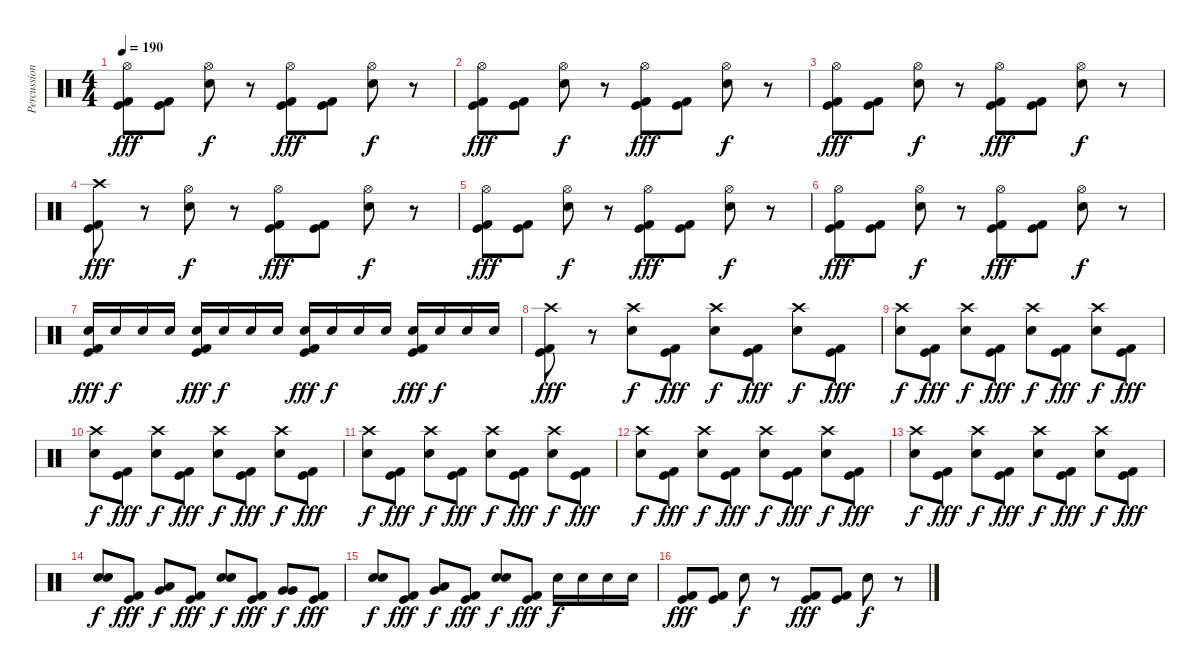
\track ("Percussion" "Percussion") {instrument percussion}
\staff {score}
\articulation defaults
\ts (4 4)
\tempo 190
\clef neutral
\ks c
("Hi-Hat (open)" "Kick (hit)" "Kick (hit) 2").8{dy fff} ("Kick (hit)" "Kick (hit) 2").8 ("Hi-Hat (open)" "Electric Snare (hit)").8{dy f} r.8 ("Hi-Hat (open)" "Kick (hit)" "Kick (hit) 2").8{dy fff} ("Kick (hit)" "Kick (hit) 2").8 ("Hi-Hat (open)" "Electric Snare (hit)").8{dy f} r.8 |
("Hi-Hat (open)" "Kick (hit)" "Kick (hit) 2").8{dy fff} ("Kick (hit)" "Kick (hit) 2").8 ("Hi-Hat (open)" "Electric Snare (hit)").8{dy f} r.8 ("Hi-Hat (open)" "Kick (hit)" "Kick (hit) 2").8{dy fff} ("Kick (hit)" "Kick (hit) 2").8 ("Hi-Hat (open)" "Electric Snare (hit)").8{dy f} r.8 |
("Hi-Hat (open)" "Kick (hit)" "Kick (hit) 2").8{dy fff} ("Kick (hit)" "Kick (hit) 2").8 ("Hi-Hat (open)" "Electric Snare (hit)").8{dy f} r.8 ("Hi-Hat (open)" "Kick (hit)" "Kick (hit) 2").8{dy fff} ("Kick (hit)" "Kick (hit) 2").8 ("Hi-Hat (open)" "Electric Snare (hit)").8{dy f} r.8 |
("Crash high (hit)" "Kick (hit)" "Kick (hit) 2").8{dy fff} r.8 ("Hi-Hat (open)" "Electric Snare (hit)").8{dy f} r.8 ("Hi-Hat (open)" "Kick (hit)" "Kick (hit) 2").8{dy fff} ("Kick (hit)" "Kick (hit) 2").8 ("Hi-Hat (open)" "Electric Snare (hit)").8{dy f} r.8 |
("Hi-Hat (open)" "Kick (hit)" "Kick (hit) 2").8{dy fff} ("Kick (hit)" "Kick (hit) 2").8 ("Hi-Hat (open)" "Electric Snare (hit)").8{dy f} r.8 ("Hi-Hat (open)" "Kick (hit)" "Kick (hit) 2").8{dy fff} ("Kick (hit)" "Kick (hit) 2").8 ("Hi-Hat (open)" "Electric Snare (hit)").8{dy f} r.8 |
("Hi-Hat (open)" "Kick (hit)" "Kick (hit) 2").8{dy fff} ("Kick (hit)" "Kick (hit) 2").8 ("Hi-Hat (open)" "Electric Snare (hit)").8{dy f} r.8 ("Hi-Hat (open)" "Kick (hit)" "Kick (hit) 2").8{dy fff} ("Kick (hit)" "Kick (hit) 2").8 ("Hi-Hat (open)" "Electric Snare (hit)").8{dy f} r.8 |
("Electric Snare (hit)" "Kick (hit)" "Kick (hit) 2").16{dy fff} "Electric Snare (hit)".16{dy f} "Electric Snare (hit)".16 "Electric Snare (hit)".16 ("Electric Snare (hit)" "Kick (hit)" "Kick (hit) 2").16{dy fff} "Electric Snare (hit)".16{dy f} "Electric Snare (hit)".16 "Electric Snare (hit)".16 ("Electric Snare (hit)" "Kick (hit)" "Kick (hit) 2").16{dy fff} "Electric Snare (hit)".16{dy f} "Electric Snare (hit)".16 "Electric Snare (hit)".16 ("Electric Snare (hit)" "Kick (hit)" "Kick (hit) 2").16{dy fff} "Electric Snare (hit)".16{dy f} "Electric Snare (hit)".16 "Electric Snare (hit)".16 |
("Crash high (hit)" "Kick (hit)" "Kick (hit) 2").8{dy fff} r.8 ("Crash high (hit)" "Electric Snare (hit)").8{dy f} ("Kick (hit)" "Kick (hit) 2").8{dy fff} ("Crash high (hit)" "Electric Snare (hit)").8{dy f} ("Kick (hit)" "Kick (hit) 2").8{dy fff} ("Crash high (hit)" "Electric Snare (hit)").8{dy f} ("Kick (hit)" "Kick (hit) 2").8{dy fff} |
("Crash high (hit)" "Electric Snare (hit)").8{dy f} ("Kick (hit)" "Kick (hit) 2").8{dy fff} ("Crash high (hit)" "Electric Snare (hit)").8{dy f} ("Kick (hit)" "Kick (hit) 2").8{dy fff} ("Crash high (hit)" "Electric Snare (hit)").8{dy f} ("Kick (hit)" "Kick (hit) 2").8{dy fff} ("Crash high (hit)" "Electric Snare (hit)").8{dy f} ("Kick (hit)" "Kick (hit) 2").8{dy fff} |
("Crash high (hit)" "Electric Snare (hit)").8{dy f} ("Kick (hit)" "Kick (hit) 2").8{dy fff} ("Crash high (hit)" "Electric Snare (hit)").8{dy f} ("Kick (hit)" "Kick (hit) 2").8{dy fff} ("Crash high (hit)" "Electric Snare (hit)").8{dy f} ("Kick (hit)" "Kick (hit) 2").8{dy fff} ("Crash high (hit)" "Electric Snare (hit)").8{dy f} ("Kick (hit)" "Kick (hit) 2").8{dy fff} |
("Crash high (hit)" "Electric Snare (hit)").8{dy f} ("Kick (hit)" "Kick (hit) 2").8{dy fff} ("Crash high (hit)" "Electric Snare (hit)").8{dy f} ("Kick (hit)" "Kick (hit) 2").8{dy fff} ("Crash high (hit)" "Electric Snare (hit)").8{dy f} ("Kick (hit)" "Kick (hit) 2").8{dy fff} ("Crash high (hit)" "Electric Snare (hit)").8{dy f} ("Kick (hit)" "Kick (hit) 2").8{dy fff} |
("Crash high (hit)" "Electric Snare (hit)").8{dy f} ("Kick (hit)" "Kick (hit) 2").8{dy fff} ("Crash high (hit)" "Electric Snare (hit)").8{dy f} ("Kick (hit)" "Kick (hit) 2").8{dy fff} ("Crash high (hit)" "Electric Snare (hit)").8{dy f} ("Kick (hit)" "Kick (hit) 2").8{dy fff} ("Crash high (hit)" "Electric Snare (hit)").8{dy f} ("Kick (hit)" "Kick (hit) 2").8{dy fff} |
("Crash high (hit)" "Electric Snare (hit)").8{dy f} ("Kick (hit)" "Kick (hit) 2").8{dy fff} ("Crash high (hit)" "Electric Snare (hit)").8{dy f} ("Kick (hit)" "Kick (hit) 2").8{dy fff} ("Crash high (hit)" "Electric Snare (hit)").8{dy f} ("Kick (hit)" "Kick (hit) 2").8{dy fff} ("Crash high (hit)" "Electric Snare (hit)").8{dy f} ("Kick (hit)" "Kick (hit) 2").8{dy fff} |
("Electric Snare (hit)" "Electric Snare (hit)").8{bu 60 dy f} ("Kick (hit)" "Kick (hit) 2").8{dy fff} ("Low Tom (hit)" "Very Low Tom (hit)").8{bu 60 dy f} ("Kick (hit)" "Kick (hit) 2").8{dy fff} ("Electric Snare (hit)" "Electric Snare (hit)").8{bu 60 dy f} ("Kick (hit)" "Kick (hit) 2").8{dy fff} ("Very Low Tom (hit)" "Very Low Tom (hit)").8{bu 60 dy f} ("Kick (hit)" "Kick (hit) 2").8{dy fff} |
("Electric Snare (hit)" "Electric Snare (hit)").8{bu 60 dy f} ("Kick (hit)" "Kick (hit) 2").8{dy fff} ("Low Floor Tom (hit)" "Very Low Tom (hit)").8{bu 60 dy f} ("Kick (hit)" "Kick (hit) 2").8{dy fff} ("Electric Snare (hit)" "Electric Snare (hit)").8{bu 60 dy f} ("Kick (hit)" "Kick (hit) 2").8{dy fff} "Electric Snare (hit)".16{dy f} "Electric Snare (hit)".16 "Electric Snare (hit)".16 "Electric Snare (hit)".16 |
("Kick (hit)" "Kick (hit) 2").8{dy fff} ("Kick (hit)" "Kick (hit) 2").8 "Electric Snare (hit)".8{dy f} r.8 ("Kick (hit)" "Kick (hit) 2").8{dy fff} ("Kick (hit)" "Kick (hit) 2").8 "Electric Snare (hit)".8{dy f} r.8
